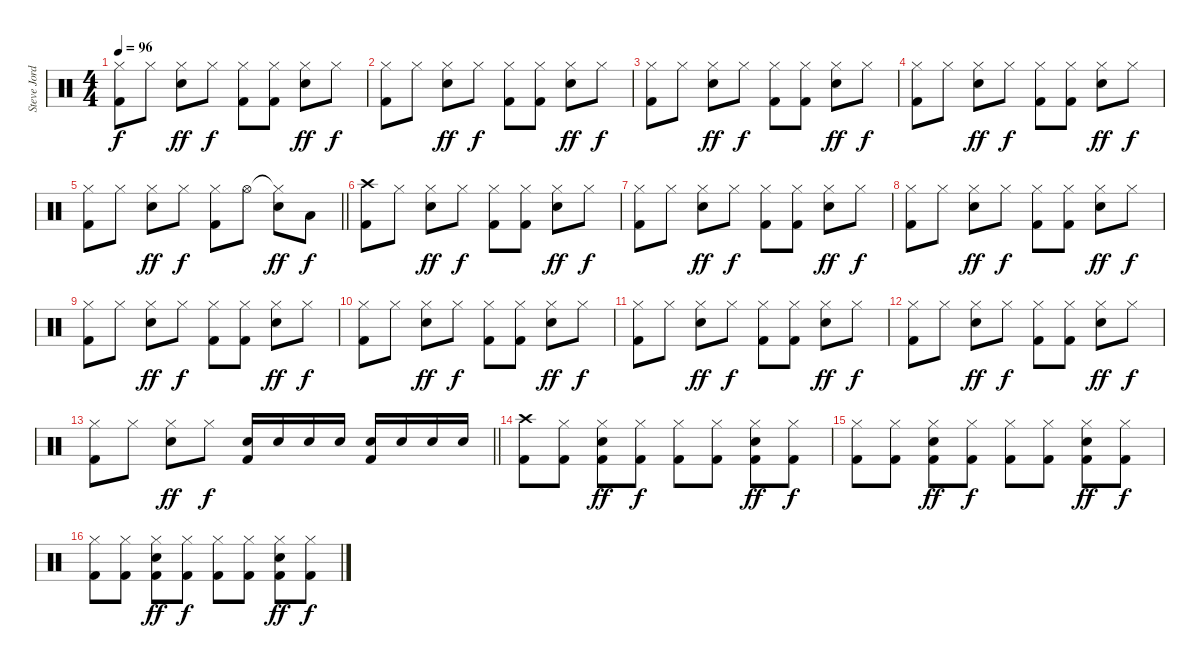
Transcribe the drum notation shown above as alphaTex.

\track ("Steve Jordan" "Steve Jord") {instrument percussion}
\staff {score}
\articulation defaults
\ts (4 4)
\tempo 96
\clef neutral
\ks c
("Hi-Hat (closed)" "Kick (hit) 2").8{dy f} "Hi-Hat (closed)".8 ("Hi-Hat (closed)" "Snare (hit) 2").8{dy ff} "Hi-Hat (closed)".8{dy f} ("Hi-Hat (closed)" "Kick (hit) 2").8 ("Hi-Hat (closed)" "Kick (hit) 2").8 ("Hi-Hat (closed)" "Snare (hit) 2").8{dy ff} "Hi-Hat (closed)".8{dy f} |
("Hi-Hat (closed)" "Kick (hit) 2").8 "Hi-Hat (closed)".8 ("Hi-Hat (closed)" "Snare (hit) 2").8{dy ff} "Hi-Hat (closed)".8{dy f} ("Hi-Hat (closed)" "Kick (hit) 2").8 ("Hi-Hat (closed)" "Kick (hit) 2").8 ("Hi-Hat (closed)" "Snare (hit) 2").8{dy ff} "Hi-Hat (closed)".8{dy f} |
("Hi-Hat (closed)" "Kick (hit) 2").8 "Hi-Hat (closed)".8 ("Hi-Hat (closed)" "Snare (hit) 2").8{dy ff} "Hi-Hat (closed)".8{dy f} ("Hi-Hat (closed)" "Kick (hit) 2").8 ("Hi-Hat (closed)" "Kick (hit) 2").8 ("Hi-Hat (closed)" "Snare (hit) 2").8{dy ff} "Hi-Hat (closed)".8{dy f} |
("Hi-Hat (closed)" "Kick (hit) 2").8 "Hi-Hat (closed)".8 ("Hi-Hat (closed)" "Snare (hit) 2").8{dy ff} "Hi-Hat (closed)".8{dy f} ("Hi-Hat (closed)" "Kick (hit) 2").8 ("Hi-Hat (closed)" "Kick (hit) 2").8 ("Hi-Hat (closed)" "Snare (hit) 2").8{dy ff} "Hi-Hat (closed)".8{dy f} |
\barLineRight lightlight
("Hi-Hat (closed)" "Kick (hit) 2").8 "Hi-Hat (closed)".8 ("Hi-Hat (closed)" "Snare (hit) 2").8{dy ff} "Hi-Hat (closed)".8{dy f} ("Hi-Hat (closed)" "Kick (hit) 2").8 "Hi-Hat (open)".8 ("Hi-Hat (closed)"{t} "Snare (hit) 2").8{dy ff} "Low Tom (hit)".8{dy f} |
("Crash high (hit)" "Kick (hit) 2").8 "Hi-Hat (closed)".8 ("Hi-Hat (closed)" "Snare (hit) 2").8{dy ff} "Hi-Hat (closed)".8{dy f} ("Hi-Hat (closed)" "Kick (hit) 2").8 ("Hi-Hat (closed)" "Kick (hit) 2").8 ("Hi-Hat (closed)" "Snare (hit) 2").8{dy ff} "Hi-Hat (closed)".8{dy f} |
("Hi-Hat (closed)" "Kick (hit) 2").8 "Hi-Hat (closed)".8 ("Hi-Hat (closed)" "Snare (hit) 2").8{dy ff} "Hi-Hat (closed)".8{dy f} ("Hi-Hat (closed)" "Kick (hit) 2").8 ("Hi-Hat (closed)" "Kick (hit) 2").8 ("Hi-Hat (closed)" "Snare (hit) 2").8{dy ff} "Hi-Hat (closed)".8{dy f} |
("Hi-Hat (closed)" "Kick (hit) 2").8 "Hi-Hat (closed)".8 ("Hi-Hat (closed)" "Snare (hit) 2").8{dy ff} "Hi-Hat (closed)".8{dy f} ("Hi-Hat (closed)" "Kick (hit) 2").8 ("Hi-Hat (closed)" "Kick (hit) 2").8 ("Hi-Hat (closed)" "Snare (hit) 2").8{dy ff} "Hi-Hat (closed)".8{dy f} |
("Hi-Hat (closed)" "Kick (hit) 2").8 "Hi-Hat (closed)".8 ("Hi-Hat (closed)" "Snare (hit) 2").8{dy ff} "Hi-Hat (closed)".8{dy f} ("Hi-Hat (closed)" "Kick (hit) 2").8 ("Hi-Hat (closed)" "Kick (hit) 2").8 ("Hi-Hat (closed)" "Snare (hit) 2").8{dy ff} "Hi-Hat (closed)".8{dy f} |
("Hi-Hat (closed)" "Kick (hit) 2").8 "Hi-Hat (closed)".8 ("Hi-Hat (closed)" "Snare (hit) 2").8{dy ff} "Hi-Hat (closed)".8{dy f} ("Hi-Hat (closed)" "Kick (hit) 2").8 ("Hi-Hat (closed)" "Kick (hit) 2").8 ("Hi-Hat (closed)" "Snare (hit) 2").8{dy ff} "Hi-Hat (closed)".8{dy f} |
("Hi-Hat (closed)" "Kick (hit) 2").8 "Hi-Hat (closed)".8 ("Hi-Hat (closed)" "Snare (hit) 2").8{dy ff} "Hi-Hat (closed)".8{dy f} ("Hi-Hat (closed)" "Kick (hit) 2").8 ("Hi-Hat (closed)" "Kick (hit) 2").8 ("Hi-Hat (closed)" "Snare (hit) 2").8{dy ff} "Hi-Hat (closed)".8{dy f} |
("Hi-Hat (closed)" "Kick (hit) 2").8 "Hi-Hat (closed)".8 ("Hi-Hat (closed)" "Snare (hit) 2").8{dy ff} "Hi-Hat (closed)".8{dy f} ("Hi-Hat (closed)" "Kick (hit) 2").8 ("Hi-Hat (closed)" "Kick (hit) 2").8 ("Hi-Hat (closed)" "Snare (hit) 2").8{dy ff} "Hi-Hat (closed)".8{dy f} |
\barLineRight lightlight
("Hi-Hat (closed)" "Kick (hit) 2").8 "Hi-Hat (closed)".8 ("Hi-Hat (closed)" "Snare (hit) 2").8{dy ff} "Hi-Hat (closed)".8{dy f} ("Snare (hit) 2" "Kick (hit) 2").16 "Snare (hit) 2".16 "Snare (hit) 2".16 "Snare (hit) 2".16 ("Snare (hit) 2" "Kick (hit) 2").16 "Snare (hit) 2".16 "Snare (hit) 2".16 "Snare (hit) 2".16 |
("Crash high (hit)" "Kick (hit) 2").8 ("Hi-Hat (closed)" "Kick (hit) 2").8 ("Hi-Hat (closed)" "Snare (hit) 2" "Kick (hit) 2").8{dy ff} ("Hi-Hat (closed)" "Kick (hit) 2").8{dy f} ("Hi-Hat (closed)" "Kick (hit) 2").8 ("Hi-Hat (closed)" "Kick (hit) 2").8 ("Hi-Hat (closed)" "Snare (hit) 2" "Kick (hit) 2").8{dy ff} ("Hi-Hat (closed)" "Kick (hit) 2").8{dy f} |
("Hi-Hat (closed)" "Kick (hit) 2").8 ("Hi-Hat (closed)" "Kick (hit) 2").8 ("Hi-Hat (closed)" "Snare (hit) 2" "Kick (hit) 2").8{dy ff} ("Hi-Hat (closed)" "Kick (hit) 2").8{dy f} ("Hi-Hat (closed)" "Kick (hit) 2").8 ("Hi-Hat (closed)" "Kick (hit) 2").8 ("Hi-Hat (closed)" "Snare (hit) 2" "Kick (hit) 2").8{dy ff} ("Hi-Hat (closed)" "Kick (hit) 2").8{dy f} |
("Hi-Hat (closed)" "Kick (hit) 2").8 ("Hi-Hat (closed)" "Kick (hit) 2").8 ("Hi-Hat (closed)" "Snare (hit) 2" "Kick (hit) 2").8{dy ff} ("Hi-Hat (closed)" "Kick (hit) 2").8{dy f} ("Hi-Hat (closed)" "Kick (hit) 2").8 ("Hi-Hat (closed)" "Kick (hit) 2").8 ("Hi-Hat (closed)" "Snare (hit) 2" "Kick (hit) 2").8{dy ff} ("Hi-Hat (closed)" "Kick (hit) 2").8{dy f}
